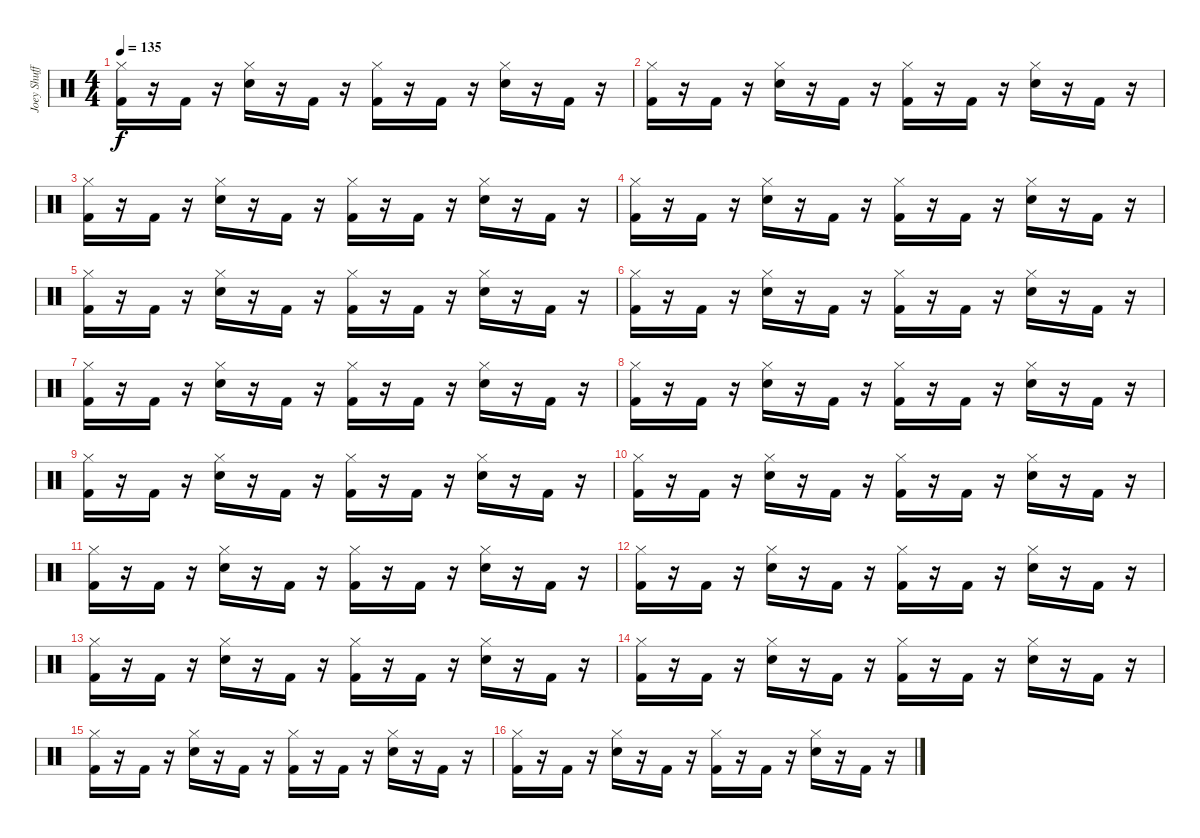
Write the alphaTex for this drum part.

\track ("Joey Shuffield" "Joey Shuff") {instrument percussion}
\staff {score}
\articulation defaults
\ts (4 4)
\tempo 135
\clef neutral
\ks c
("Kick (hit) 2" "Hi-Hat (closed)").16{dy f} r.16 "Kick (hit) 2".16 r.16 ("Snare (hit) 2" "Hi-Hat (closed)").16 r.16 "Kick (hit) 2".16 r.16 ("Kick (hit) 2" "Hi-Hat (closed)").16 r.16 "Kick (hit) 2".16 r.16 ("Snare (hit) 2" "Hi-Hat (closed)").16 r.16 "Kick (hit) 2".16 r.16 |
("Kick (hit) 2" "Hi-Hat (closed)").16 r.16 "Kick (hit) 2".16 r.16 ("Snare (hit) 2" "Hi-Hat (closed)").16 r.16 "Kick (hit) 2".16 r.16 ("Kick (hit) 2" "Hi-Hat (closed)").16 r.16 "Kick (hit) 2".16 r.16 ("Snare (hit) 2" "Hi-Hat (closed)").16 r.16 "Kick (hit) 2".16 r.16 |
("Kick (hit) 2" "Hi-Hat (closed)").16 r.16 "Kick (hit) 2".16 r.16 ("Snare (hit) 2" "Hi-Hat (closed)").16 r.16 "Kick (hit) 2".16 r.16 ("Kick (hit) 2" "Hi-Hat (closed)").16 r.16 "Kick (hit) 2".16 r.16 ("Snare (hit) 2" "Hi-Hat (closed)").16 r.16 "Kick (hit) 2".16 r.16 |
("Kick (hit) 2" "Hi-Hat (closed)").16 r.16 "Kick (hit) 2".16 r.16 ("Snare (hit) 2" "Hi-Hat (closed)").16 r.16 "Kick (hit) 2".16 r.16 ("Kick (hit) 2" "Hi-Hat (closed)").16 r.16 "Kick (hit) 2".16 r.16 ("Snare (hit) 2" "Hi-Hat (closed)").16 r.16 "Kick (hit) 2".16 r.16 |
("Kick (hit) 2" "Hi-Hat (closed)").16 r.16 "Kick (hit) 2".16 r.16 ("Snare (hit) 2" "Hi-Hat (closed)").16 r.16 "Kick (hit) 2".16 r.16 ("Kick (hit) 2" "Hi-Hat (closed)").16 r.16 "Kick (hit) 2".16 r.16 ("Snare (hit) 2" "Hi-Hat (closed)").16 r.16 "Kick (hit) 2".16 r.16 |
("Kick (hit) 2" "Hi-Hat (closed)").16 r.16 "Kick (hit) 2".16 r.16 ("Snare (hit) 2" "Hi-Hat (closed)").16 r.16 "Kick (hit) 2".16 r.16 ("Kick (hit) 2" "Hi-Hat (closed)").16 r.16 "Kick (hit) 2".16 r.16 ("Snare (hit) 2" "Hi-Hat (closed)").16 r.16 "Kick (hit) 2".16 r.16 |
("Kick (hit) 2" "Hi-Hat (closed)").16 r.16 "Kick (hit) 2".16 r.16 ("Snare (hit) 2" "Hi-Hat (closed)").16 r.16 "Kick (hit) 2".16 r.16 ("Kick (hit) 2" "Hi-Hat (closed)").16 r.16 "Kick (hit) 2".16 r.16 ("Snare (hit) 2" "Hi-Hat (closed)").16 r.16 "Kick (hit) 2".16 r.16 |
("Kick (hit) 2" "Hi-Hat (closed)").16 r.16 "Kick (hit) 2".16 r.16 ("Snare (hit) 2" "Hi-Hat (closed)").16 r.16 "Kick (hit) 2".16 r.16 ("Kick (hit) 2" "Hi-Hat (closed)").16 r.16 "Kick (hit) 2".16 r.16 ("Snare (hit) 2" "Hi-Hat (closed)").16 r.16 "Kick (hit) 2".16 r.16 |
("Kick (hit) 2" "Hi-Hat (closed)").16 r.16 "Kick (hit) 2".16 r.16 ("Snare (hit) 2" "Hi-Hat (closed)").16 r.16 "Kick (hit) 2".16 r.16 ("Kick (hit) 2" "Hi-Hat (closed)").16 r.16 "Kick (hit) 2".16 r.16 ("Snare (hit) 2" "Hi-Hat (closed)").16 r.16 "Kick (hit) 2".16 r.16 |
("Kick (hit) 2" "Hi-Hat (closed)").16 r.16 "Kick (hit) 2".16 r.16 ("Snare (hit) 2" "Hi-Hat (closed)").16 r.16 "Kick (hit) 2".16 r.16 ("Kick (hit) 2" "Hi-Hat (closed)").16 r.16 "Kick (hit) 2".16 r.16 ("Snare (hit) 2" "Hi-Hat (closed)").16 r.16 "Kick (hit) 2".16 r.16 |
("Kick (hit) 2" "Hi-Hat (closed)").16 r.16 "Kick (hit) 2".16 r.16 ("Snare (hit) 2" "Hi-Hat (closed)").16 r.16 "Kick (hit) 2".16 r.16 ("Kick (hit) 2" "Hi-Hat (closed)").16 r.16 "Kick (hit) 2".16 r.16 ("Snare (hit) 2" "Hi-Hat (closed)").16 r.16 "Kick (hit) 2".16 r.16 |
("Kick (hit) 2" "Hi-Hat (closed)").16 r.16 "Kick (hit) 2".16 r.16 ("Snare (hit) 2" "Hi-Hat (closed)").16 r.16 "Kick (hit) 2".16 r.16 ("Kick (hit) 2" "Hi-Hat (closed)").16 r.16 "Kick (hit) 2".16 r.16 ("Snare (hit) 2" "Hi-Hat (closed)").16 r.16 "Kick (hit) 2".16 r.16 |
("Kick (hit) 2" "Hi-Hat (closed)").16 r.16 "Kick (hit) 2".16 r.16 ("Snare (hit) 2" "Hi-Hat (closed)").16 r.16 "Kick (hit) 2".16 r.16 ("Kick (hit) 2" "Hi-Hat (closed)").16 r.16 "Kick (hit) 2".16 r.16 ("Snare (hit) 2" "Hi-Hat (closed)").16 r.16 "Kick (hit) 2".16 r.16 |
("Kick (hit) 2" "Hi-Hat (closed)").16 r.16 "Kick (hit) 2".16 r.16 ("Snare (hit) 2" "Hi-Hat (closed)").16 r.16 "Kick (hit) 2".16 r.16 ("Kick (hit) 2" "Hi-Hat (closed)").16 r.16 "Kick (hit) 2".16 r.16 ("Snare (hit) 2" "Hi-Hat (closed)").16 r.16 "Kick (hit) 2".16 r.16 |
("Kick (hit) 2" "Hi-Hat (closed)").16 r.16 "Kick (hit) 2".16 r.16 ("Snare (hit) 2" "Hi-Hat (closed)").16 r.16 "Kick (hit) 2".16 r.16 ("Kick (hit) 2" "Hi-Hat (closed)").16 r.16 "Kick (hit) 2".16 r.16 ("Snare (hit) 2" "Hi-Hat (closed)").16 r.16 "Kick (hit) 2".16 r.16 |
("Kick (hit) 2" "Hi-Hat (closed)").16 r.16 "Kick (hit) 2".16 r.16 ("Snare (hit) 2" "Hi-Hat (closed)").16 r.16 "Kick (hit) 2".16 r.16 ("Kick (hit) 2" "Hi-Hat (closed)").16 r.16 "Kick (hit) 2".16 r.16 ("Snare (hit) 2" "Hi-Hat (closed)").16 r.16 "Kick (hit) 2".16 r.16
